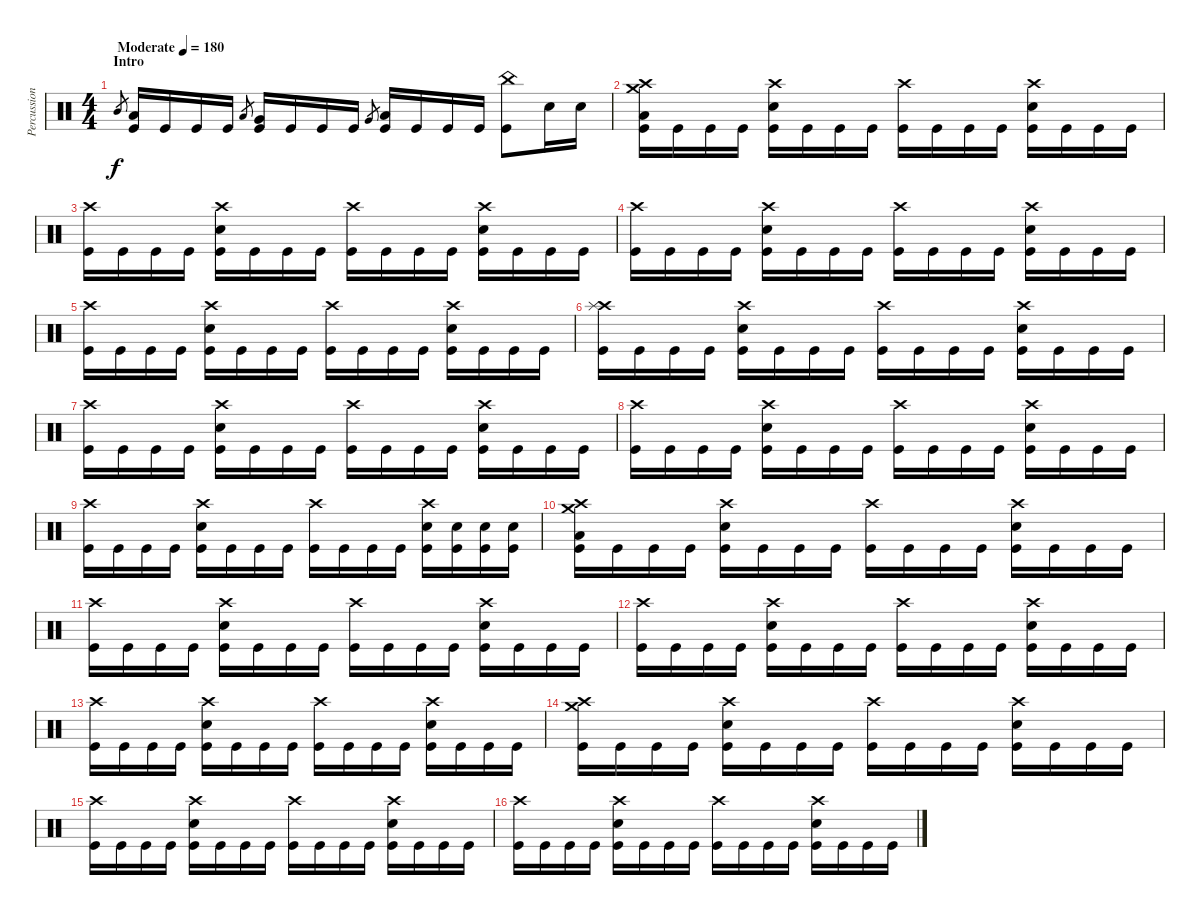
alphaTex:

\track ("Percussion" "Percussion") {instrument percussion}
\staff {score}
\articulation defaults
\ts (4 4)
\section ("" "Intro")
\tempo (180 "Moderate")
\clef neutral
\ks c "Mid Tom (hit)".8{gr dy f}
("Low Tom (hit)" "Kick (hit)").16 "Kick (hit)".16 "Kick (hit)".16 "Kick (hit)".16 "Low Tom (hit)".8{gr} ("Very Low Tom (hit)" "Kick (hit)").16 "Kick (hit)".16 "Kick (hit)".16 "Kick (hit)".16 "Very Low Tom (hit)".8{gr} ("Low Floor Tom (hit)" "Kick (hit)").16 "Kick (hit)".16 "Kick (hit)".16 "Kick (hit)".16 ("China (hit)" "Kick (hit)").8 "Electric Snare (hit)".16 "Electric Snare (hit)".16 |
("Crash high (hit)" "Crash medium (hit)" "Low Floor Tom (hit)" "Kick (hit)").16 "Kick (hit)".16 "Kick (hit)".16 "Kick (hit)".16 ("Crash high (hit)" "Electric Snare (hit)" "Kick (hit)").16 "Kick (hit)".16 "Kick (hit)".16 "Kick (hit)".16 ("Crash high (hit)" "Kick (hit)").16 "Kick (hit)".16 "Kick (hit)".16 "Kick (hit)".16 ("Crash high (hit)" "Electric Snare (hit)" "Kick (hit)").16 "Kick (hit)".16 "Kick (hit)".16 "Kick (hit)".16 |
("Crash high (hit)" "Kick (hit)").16 "Kick (hit)".16 "Kick (hit)".16 "Kick (hit)".16 ("Crash high (hit)" "Electric Snare (hit)" "Kick (hit)").16 "Kick (hit)".16 "Kick (hit)".16 "Kick (hit)".16 ("Crash high (hit)" "Kick (hit)").16 "Kick (hit)".16 "Kick (hit)".16 "Kick (hit)".16 ("Crash high (hit)" "Electric Snare (hit)" "Kick (hit)").16 "Kick (hit)".16 "Kick (hit)".16 "Kick (hit)".16 |
("Crash high (hit)" "Kick (hit)").16 "Kick (hit)".16 "Kick (hit)".16 "Kick (hit)".16 ("Crash high (hit)" "Electric Snare (hit)" "Kick (hit)").16 "Kick (hit)".16 "Kick (hit)".16 "Kick (hit)".16 ("Crash high (hit)" "Kick (hit)").16 "Kick (hit)".16 "Kick (hit)".16 "Kick (hit)".16 ("Crash high (hit)" "Electric Snare (hit)" "Kick (hit)").16 "Kick (hit)".16 "Kick (hit)".16 "Kick (hit)".16 |
("Crash high (hit)" "Kick (hit)").16 "Kick (hit)".16 "Kick (hit)".16 "Kick (hit)".16 ("Crash high (hit)" "Electric Snare (hit)" "Kick (hit)").16 "Kick (hit)".16 "Kick (hit)".16 "Kick (hit)".16 ("Crash high (hit)" "Kick (hit)").16 "Kick (hit)".16 "Kick (hit)".16 "Kick (hit)".16 ("Crash high (hit)" "Electric Snare (hit)" "Kick (hit)").16 "Kick (hit)".16 "Kick (hit)".16 "Kick (hit)".16 |
("Crash high (hit)" "Splash (hit)" "Kick (hit)").16 "Kick (hit)".16 "Kick (hit)".16 "Kick (hit)".16 ("Crash high (hit)" "Electric Snare (hit)" "Kick (hit)").16 "Kick (hit)".16 "Kick (hit)".16 "Kick (hit)".16 ("Crash high (hit)" "Kick (hit)").16 "Kick (hit)".16 "Kick (hit)".16 "Kick (hit)".16 ("Crash high (hit)" "Electric Snare (hit)" "Kick (hit)").16 "Kick (hit)".16 "Kick (hit)".16 "Kick (hit)".16 |
("Crash high (hit)" "Kick (hit)").16 "Kick (hit)".16 "Kick (hit)".16 "Kick (hit)".16 ("Crash high (hit)" "Electric Snare (hit)" "Kick (hit)").16 "Kick (hit)".16 "Kick (hit)".16 "Kick (hit)".16 ("Crash high (hit)" "Kick (hit)").16 "Kick (hit)".16 "Kick (hit)".16 "Kick (hit)".16 ("Crash high (hit)" "Electric Snare (hit)" "Kick (hit)").16 "Kick (hit)".16 "Kick (hit)".16 "Kick (hit)".16 |
("Crash high (hit)" "Kick (hit)").16 "Kick (hit)".16 "Kick (hit)".16 "Kick (hit)".16 ("Crash high (hit)" "Electric Snare (hit)" "Kick (hit)").16 "Kick (hit)".16 "Kick (hit)".16 "Kick (hit)".16 ("Crash high (hit)" "Kick (hit)").16 "Kick (hit)".16 "Kick (hit)".16 "Kick (hit)".16 ("Crash high (hit)" "Electric Snare (hit)" "Kick (hit)").16 "Kick (hit)".16 "Kick (hit)".16 "Kick (hit)".16 |
("Crash high (hit)" "Kick (hit)").16 "Kick (hit)".16 "Kick (hit)".16 "Kick (hit)".16 ("Crash high (hit)" "Electric Snare (hit)" "Kick (hit)").16 "Kick (hit)".16 "Kick (hit)".16 "Kick (hit)".16 ("Crash high (hit)" "Kick (hit)").16 "Kick (hit)".16 "Kick (hit)".16 "Kick (hit)".16 ("Crash high (hit)" "Electric Snare (hit)" "Kick (hit)").16 ("Electric Snare (hit)" "Kick (hit)").16 ("Electric Snare (hit)" "Kick (hit)").16 ("Electric Snare (hit)" "Kick (hit)").16 |
("Crash high (hit)" "Crash medium (hit)" "Low Floor Tom (hit)" "Kick (hit)").16 "Kick (hit)".16 "Kick (hit)".16 "Kick (hit)".16 ("Crash high (hit)" "Electric Snare (hit)" "Kick (hit)").16 "Kick (hit)".16 "Kick (hit)".16 "Kick (hit)".16 ("Crash high (hit)" "Kick (hit)").16 "Kick (hit)".16 "Kick (hit)".16 "Kick (hit)".16 ("Crash high (hit)" "Electric Snare (hit)" "Kick (hit)").16 "Kick (hit)".16 "Kick (hit)".16 "Kick (hit)".16 |
("Crash high (hit)" "Kick (hit)").16 "Kick (hit)".16 "Kick (hit)".16 "Kick (hit)".16 ("Crash high (hit)" "Electric Snare (hit)" "Kick (hit)").16 "Kick (hit)".16 "Kick (hit)".16 "Kick (hit)".16 ("Crash high (hit)" "Kick (hit)").16 "Kick (hit)".16 "Kick (hit)".16 "Kick (hit)".16 ("Crash high (hit)" "Electric Snare (hit)" "Kick (hit)").16 "Kick (hit)".16 "Kick (hit)".16 "Kick (hit)".16 |
("Crash high (hit)" "Kick (hit)").16 "Kick (hit)".16 "Kick (hit)".16 "Kick (hit)".16 ("Crash high (hit)" "Electric Snare (hit)" "Kick (hit)").16 "Kick (hit)".16 "Kick (hit)".16 "Kick (hit)".16 ("Crash high (hit)" "Kick (hit)").16 "Kick (hit)".16 "Kick (hit)".16 "Kick (hit)".16 ("Crash high (hit)" "Electric Snare (hit)" "Kick (hit)").16 "Kick (hit)".16 "Kick (hit)".16 "Kick (hit)".16 |
("Crash high (hit)" "Kick (hit)").16 "Kick (hit)".16 "Kick (hit)".16 "Kick (hit)".16 ("Crash high (hit)" "Electric Snare (hit)" "Kick (hit)").16 "Kick (hit)".16 "Kick (hit)".16 "Kick (hit)".16 ("Crash high (hit)" "Kick (hit)").16 "Kick (hit)".16 "Kick (hit)".16 "Kick (hit)".16 ("Crash high (hit)" "Electric Snare (hit)" "Kick (hit)").16 "Kick (hit)".16 "Kick (hit)".16 "Kick (hit)".16 |
("Crash high (hit)" "Crash medium (hit)" "Kick (hit)").16 "Kick (hit)".16 "Kick (hit)".16 "Kick (hit)".16 ("Crash high (hit)" "Electric Snare (hit)" "Kick (hit)").16 "Kick (hit)".16 "Kick (hit)".16 "Kick (hit)".16 ("Crash high (hit)" "Kick (hit)").16 "Kick (hit)".16 "Kick (hit)".16 "Kick (hit)".16 ("Crash high (hit)" "Electric Snare (hit)" "Kick (hit)").16 "Kick (hit)".16 "Kick (hit)".16 "Kick (hit)".16 |
("Crash high (hit)" "Kick (hit)").16 "Kick (hit)".16 "Kick (hit)".16 "Kick (hit)".16 ("Crash high (hit)" "Electric Snare (hit)" "Kick (hit)").16 "Kick (hit)".16 "Kick (hit)".16 "Kick (hit)".16 ("Crash high (hit)" "Kick (hit)").16 "Kick (hit)".16 "Kick (hit)".16 "Kick (hit)".16 ("Crash high (hit)" "Electric Snare (hit)" "Kick (hit)").16 "Kick (hit)".16 "Kick (hit)".16 "Kick (hit)".16 |
("Crash high (hit)" "Kick (hit)").16 "Kick (hit)".16 "Kick (hit)".16 "Kick (hit)".16 ("Crash high (hit)" "Electric Snare (hit)" "Kick (hit)").16 "Kick (hit)".16 "Kick (hit)".16 "Kick (hit)".16 ("Crash high (hit)" "Kick (hit)").16 "Kick (hit)".16 "Kick (hit)".16 "Kick (hit)".16 ("Crash high (hit)" "Electric Snare (hit)" "Kick (hit)").16 "Kick (hit)".16 "Kick (hit)".16 "Kick (hit)".16
